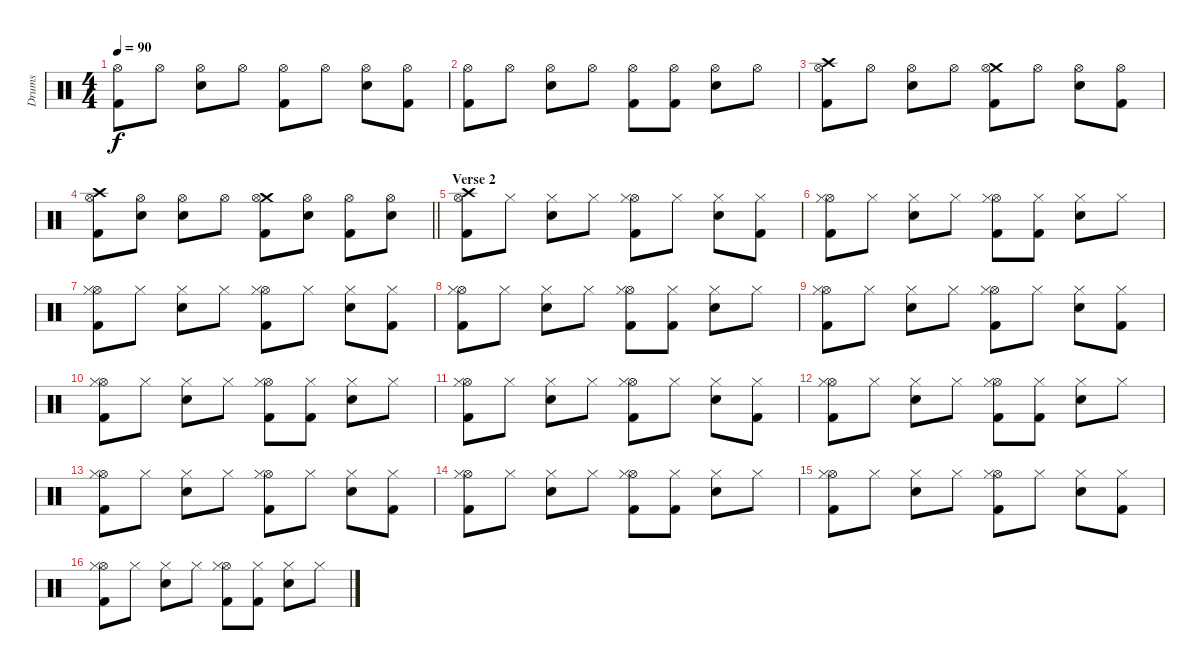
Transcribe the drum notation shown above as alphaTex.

\track ("Drums" "Drums") {instrument percussion}
\staff {score}
\articulation defaults
\ts (4 4)
\tempo 90
\clef neutral
\ks c
("Hi-Hat (open)" "Kick (hit) 2").8{dy f} "Hi-Hat (open)".8 ("Hi-Hat (open)" "Electric Snare (hit)").8 "Hi-Hat (open)".8 ("Hi-Hat (open)" "Kick (hit) 2").8 "Hi-Hat (open)".8 ("Hi-Hat (open)" "Electric Snare (hit)").8 ("Hi-Hat (open)" "Kick (hit) 2").8 |
("Hi-Hat (open)" "Kick (hit) 2").8 "Hi-Hat (open)".8 ("Hi-Hat (open)" "Electric Snare (hit)").8 "Hi-Hat (open)".8 ("Hi-Hat (open)" "Kick (hit) 2").8 ("Hi-Hat (open)" "Kick (hit) 2").8 ("Hi-Hat (open)" "Electric Snare (hit)").8 "Hi-Hat (open)".8 |
("Crash high (hit)" "Hi-Hat (open)" "Kick (hit) 2").8 "Hi-Hat (open)".8 ("Hi-Hat (open)" "Electric Snare (hit)").8 "Hi-Hat (open)".8 ("Crash medium (hit)" "Hi-Hat (open)" "Kick (hit) 2").8 "Hi-Hat (open)".8 ("Hi-Hat (open)" "Electric Snare (hit)").8 ("Hi-Hat (open)" "Kick (hit) 2").8 |
\barLineRight lightlight
("Crash high (hit)" "Hi-Hat (open)" "Kick (hit) 2").8 ("Hi-Hat (open)" "Electric Snare (hit)").8 ("Hi-Hat (open)" "Electric Snare (hit)").8 "Hi-Hat (open)".8 ("Crash medium (hit)" "Hi-Hat (open)" "Kick (hit) 2").8 ("Hi-Hat (open)" "Electric Snare (hit)").8 ("Hi-Hat (open)" "Kick (hit) 2").8 ("Hi-Hat (open)" "Electric Snare (hit)").8 |
\section ("" "Verse 2")
("Hi-Hat (open)" "Crash high (hit)" "Kick (hit) 2").8 "Hi-Hat (closed)".8 ("Hi-Hat (closed)" "Electric Snare (hit)").8 "Hi-Hat (closed)".8 ("Hi-Hat (open)" "Hi-Hat (closed)" "Kick (hit) 2").8 "Hi-Hat (closed)".8 ("Hi-Hat (closed)" "Electric Snare (hit)").8 ("Hi-Hat (closed)" "Kick (hit) 2").8 |
("Hi-Hat (open)" "Hi-Hat (closed)" "Kick (hit) 2").8 "Hi-Hat (closed)".8 ("Hi-Hat (closed)" "Electric Snare (hit)").8 "Hi-Hat (closed)".8 ("Hi-Hat (open)" "Hi-Hat (closed)" "Kick (hit) 2").8 ("Hi-Hat (closed)" "Kick (hit) 2").8 ("Hi-Hat (closed)" "Electric Snare (hit)").8 "Hi-Hat (closed)".8 |
("Hi-Hat (open)" "Hi-Hat (closed)" "Kick (hit) 2").8 "Hi-Hat (closed)".8 ("Hi-Hat (closed)" "Electric Snare (hit)").8 "Hi-Hat (closed)".8 ("Hi-Hat (open)" "Hi-Hat (closed)" "Kick (hit) 2").8 "Hi-Hat (closed)".8 ("Hi-Hat (closed)" "Electric Snare (hit)").8 ("Hi-Hat (closed)" "Kick (hit) 2").8 |
("Hi-Hat (open)" "Hi-Hat (closed)" "Kick (hit) 2").8 "Hi-Hat (closed)".8 ("Hi-Hat (closed)" "Electric Snare (hit)").8 "Hi-Hat (closed)".8 ("Hi-Hat (open)" "Hi-Hat (closed)" "Kick (hit) 2").8 ("Hi-Hat (closed)" "Kick (hit) 2").8 ("Hi-Hat (closed)" "Electric Snare (hit)").8 "Hi-Hat (closed)".8 |
("Hi-Hat (open)" "Hi-Hat (closed)" "Kick (hit) 2").8 "Hi-Hat (closed)".8 ("Hi-Hat (closed)" "Electric Snare (hit)").8 "Hi-Hat (closed)".8 ("Hi-Hat (open)" "Hi-Hat (closed)" "Kick (hit) 2").8 "Hi-Hat (closed)".8 ("Hi-Hat (closed)" "Electric Snare (hit)").8 ("Hi-Hat (closed)" "Kick (hit) 2").8 |
("Hi-Hat (open)" "Hi-Hat (closed)" "Kick (hit) 2").8 "Hi-Hat (closed)".8 ("Hi-Hat (closed)" "Electric Snare (hit)").8 "Hi-Hat (closed)".8 ("Hi-Hat (open)" "Hi-Hat (closed)" "Kick (hit) 2").8 ("Hi-Hat (closed)" "Kick (hit) 2").8 ("Hi-Hat (closed)" "Electric Snare (hit)").8 "Hi-Hat (closed)".8 |
("Hi-Hat (open)" "Hi-Hat (closed)" "Kick (hit) 2").8 "Hi-Hat (closed)".8 ("Hi-Hat (closed)" "Electric Snare (hit)").8 "Hi-Hat (closed)".8 ("Hi-Hat (open)" "Hi-Hat (closed)" "Kick (hit) 2").8 "Hi-Hat (closed)".8 ("Hi-Hat (closed)" "Electric Snare (hit)").8 ("Hi-Hat (closed)" "Kick (hit) 2").8 |
("Hi-Hat (open)" "Hi-Hat (closed)" "Kick (hit) 2").8 "Hi-Hat (closed)".8 ("Hi-Hat (closed)" "Electric Snare (hit)").8 "Hi-Hat (closed)".8 ("Hi-Hat (open)" "Hi-Hat (closed)" "Kick (hit) 2").8 ("Hi-Hat (closed)" "Kick (hit) 2").8 ("Hi-Hat (closed)" "Electric Snare (hit)").8 "Hi-Hat (closed)".8 |
("Hi-Hat (open)" "Hi-Hat (closed)" "Kick (hit) 2").8 "Hi-Hat (closed)".8 ("Hi-Hat (closed)" "Electric Snare (hit)").8 "Hi-Hat (closed)".8 ("Hi-Hat (open)" "Hi-Hat (closed)" "Kick (hit) 2").8 "Hi-Hat (closed)".8 ("Hi-Hat (closed)" "Electric Snare (hit)").8 ("Hi-Hat (closed)" "Kick (hit) 2").8 |
("Hi-Hat (open)" "Hi-Hat (closed)" "Kick (hit) 2").8 "Hi-Hat (closed)".8 ("Hi-Hat (closed)" "Electric Snare (hit)").8 "Hi-Hat (closed)".8 ("Hi-Hat (open)" "Hi-Hat (closed)" "Kick (hit) 2").8 ("Hi-Hat (closed)" "Kick (hit) 2").8 ("Hi-Hat (closed)" "Electric Snare (hit)").8 "Hi-Hat (closed)".8 |
("Hi-Hat (open)" "Hi-Hat (closed)" "Kick (hit) 2").8 "Hi-Hat (closed)".8 ("Hi-Hat (closed)" "Electric Snare (hit)").8 "Hi-Hat (closed)".8 ("Hi-Hat (open)" "Hi-Hat (closed)" "Kick (hit) 2").8 "Hi-Hat (closed)".8 ("Hi-Hat (closed)" "Electric Snare (hit)").8 ("Hi-Hat (closed)" "Kick (hit) 2").8 |
("Hi-Hat (open)" "Hi-Hat (closed)" "Kick (hit) 2").8 "Hi-Hat (closed)".8 ("Hi-Hat (closed)" "Electric Snare (hit)").8 "Hi-Hat (closed)".8 ("Hi-Hat (open)" "Hi-Hat (closed)" "Kick (hit) 2").8 ("Hi-Hat (closed)" "Kick (hit) 2").8 ("Hi-Hat (closed)" "Electric Snare (hit)").8 "Hi-Hat (closed)".8
